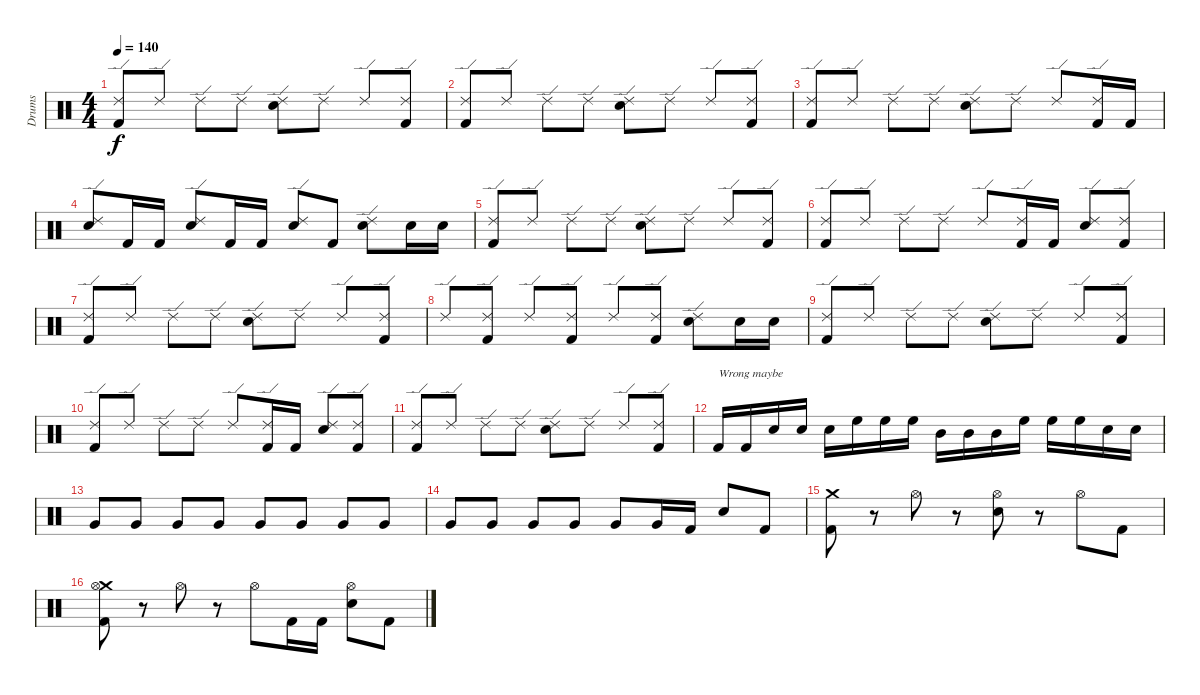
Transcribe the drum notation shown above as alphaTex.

\track ("Drums" "Drums") {instrument percussion}
\staff {score}
\articulation defaults
\ts (4 4)
\tempo 140
\clef neutral
\ks c
("Ride (edge) 2" "Kick (hit) 2").8{dy f} "Ride (edge) 2".8 "Ride (edge) 2".8 "Ride (edge) 2".8 ("Ride (edge) 2" "Snare (hit) 2").8 "Ride (edge) 2".8 "Ride (edge) 2".8 ("Ride (edge) 2" "Kick (hit) 2").8 |
("Ride (edge) 2" "Kick (hit) 2").8 "Ride (edge) 2".8 "Ride (edge) 2".8 "Ride (edge) 2".8 ("Ride (edge) 2" "Snare (hit) 2").8 "Ride (edge) 2".8 "Ride (edge) 2".8 ("Ride (edge) 2" "Kick (hit) 2").8 |
("Ride (edge) 2" "Kick (hit) 2").8 "Ride (edge) 2".8 "Ride (edge) 2".8 "Ride (edge) 2".8 ("Ride (edge) 2" "Snare (hit) 2").8 "Ride (edge) 2".8 "Ride (edge) 2".8 ("Ride (edge) 2" "Kick (hit) 2").16 "Kick (hit) 2".16 |
("Ride (edge) 2" "Snare (hit) 2").8 "Kick (hit) 2".16 "Kick (hit) 2".16 ("Ride (edge) 2" "Snare (hit) 2").8 "Kick (hit) 2".16 "Kick (hit) 2".16 ("Ride (edge) 2" "Snare (hit) 2").8 "Kick (hit) 2".8 ("Ride (edge) 2" "Snare (hit) 2").8 "Snare (hit) 2".16 "Snare (hit) 2".16 |
("Ride (edge) 2" "Kick (hit) 2").8 "Ride (edge) 2".8 "Ride (edge) 2".8 "Ride (edge) 2".8 ("Ride (edge) 2" "Snare (hit) 2").8 "Ride (edge) 2".8 "Ride (edge) 2".8 ("Ride (edge) 2" "Kick (hit) 2").8 |
("Ride (edge) 2" "Kick (hit) 2").8 "Ride (edge) 2".8 "Ride (edge) 2".8 "Ride (edge) 2".8 "Ride (edge) 2".8 ("Ride (edge) 2" "Kick (hit) 2").16 "Kick (hit) 2".16 ("Ride (edge) 2" "Snare (hit) 2").8 ("Ride (edge) 2" "Kick (hit) 2").8 |
("Ride (edge) 2" "Kick (hit) 2").8 "Ride (edge) 2".8 "Ride (edge) 2".8 "Ride (edge) 2".8 ("Ride (edge) 2" "Snare (hit) 2").8 "Ride (edge) 2".8 "Ride (edge) 2".8 ("Ride (edge) 2" "Kick (hit) 2").8 |
"Ride (edge) 2".8 ("Ride (edge) 2" "Kick (hit) 2").8 "Ride (edge) 2".8 ("Ride (edge) 2" "Kick (hit) 2").8 "Ride (edge) 2".8 ("Ride (edge) 2" "Kick (hit) 2").8 ("Ride (edge) 2" "Snare (hit) 2").8 "Snare (hit) 2".16 "Snare (hit) 2".16 |
("Ride (edge) 2" "Kick (hit) 2").8 "Ride (edge) 2".8 "Ride (edge) 2".8 "Ride (edge) 2".8 ("Ride (edge) 2" "Snare (hit) 2").8 "Ride (edge) 2".8 "Ride (edge) 2".8 ("Ride (edge) 2" "Kick (hit) 2").8 |
("Ride (edge) 2" "Kick (hit) 2").8 "Ride (edge) 2".8 "Ride (edge) 2".8 "Ride (edge) 2".8 "Ride (edge) 2".8 ("Ride (edge) 2" "Kick (hit) 2").16 "Kick (hit) 2".16 ("Ride (edge) 2" "Snare (hit) 2").8 ("Ride (edge) 2" "Kick (hit) 2").8 |
("Ride (edge) 2" "Kick (hit) 2").8 "Ride (edge) 2".8 "Ride (edge) 2".8 "Ride (edge) 2".8 ("Ride (edge) 2" "Snare (hit) 2").8 "Ride (edge) 2".8 "Ride (edge) 2".8 ("Ride (edge) 2" "Kick (hit) 2").8 |
"Kick (hit) 2".16{txt "Wrong maybe"} "Kick (hit) 2".16 "Snare (hit) 2".16 "Snare (hit) 2".16 "Snare (hit) 2".16 "High Floor Tom (hit)".16 "High Floor Tom (hit)".16 "High Floor Tom (hit)".16 "Mid Tom (hit)".16 "Mid Tom (hit)".16 "Mid Tom (hit)".16 "High Floor Tom (hit)".16 "High Floor Tom (hit)".16 "High Floor Tom (hit)".16 "Snare (hit) 2".16 "Snare (hit) 2".16 |
"Very Low Tom (hit)".8 "Very Low Tom (hit)".8 "Very Low Tom (hit)".8 "Very Low Tom (hit)".8 "Very Low Tom (hit)".8 "Very Low Tom (hit)".8 "Very Low Tom (hit)".8 "Very Low Tom (hit)".8 |
"Very Low Tom (hit)".8 "Very Low Tom (hit)".8 "Very Low Tom (hit)".8 "Very Low Tom (hit)".8 "Very Low Tom (hit)".8 "Very Low Tom (hit)".16 "Kick (hit) 2".16 "Snare (hit) 2".8 "Kick (hit) 2".8 |
("Crash medium (hit)" "Kick (hit) 2").8 r.8 "Hi-Hat (open)".8 r.8 ("Hi-Hat (open)" "Snare (hit) 2").8 r.8 "Hi-Hat (open)".8 "Kick (hit) 2".8 |
("Crash medium (hit)" "Hi-Hat (open)" "Kick (hit) 2").8 r.8 "Hi-Hat (open)".8 r.8 "Hi-Hat (open)".8 "Kick (hit) 2".16 "Kick (hit) 2".16 ("Hi-Hat (open)" "Snare (hit) 2").8 "Kick (hit) 2".8
